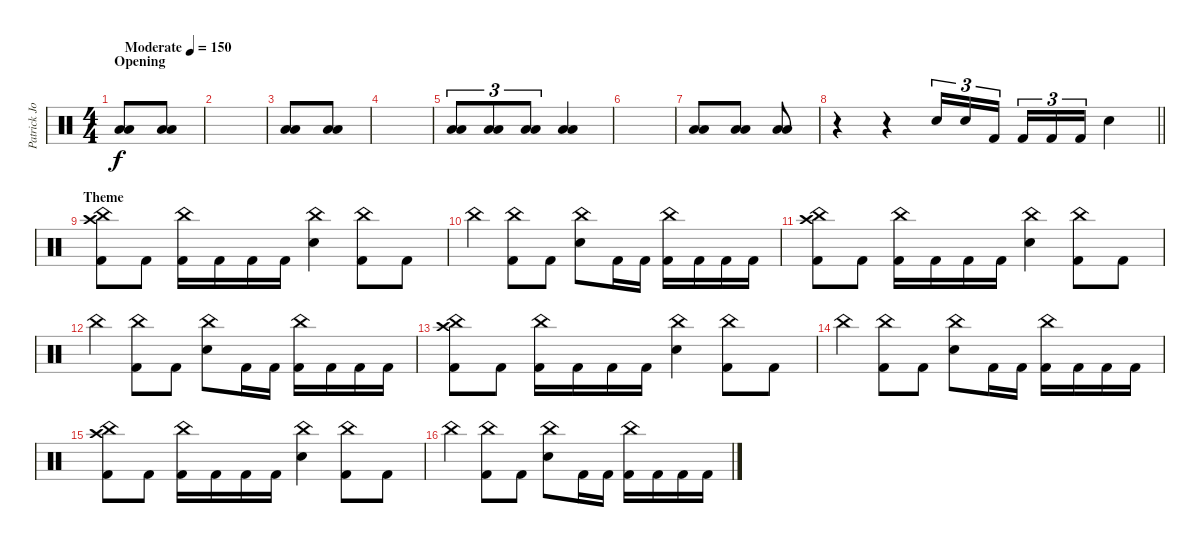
\track ("Patrick Johansson" "Patrick Jo") {instrument percussion}
\staff {score}
\articulation defaults
\ts (4 4)
\section ("" "Opening")
\tempo (150 "Moderate")
\clef neutral
\ks c
("Low Floor Tom (hit)" "Low Floor Tom (hit)").8{dy f} ("Low Floor Tom (hit)" "Low Floor Tom (hit)").8 |
|
("Low Floor Tom (hit)" "Low Floor Tom (hit)").8 ("Low Floor Tom (hit)" "Low Floor Tom (hit)").8 |
|
("Low Floor Tom (hit)" "Low Floor Tom (hit)").8{tu (3 2)} ("Low Floor Tom (hit)" "Low Floor Tom (hit)").8{tu (3 2)} ("Low Floor Tom (hit)" "Low Floor Tom (hit)").8{tu (3 2)} ("Low Floor Tom (hit)" "Low Floor Tom (hit)").4 |
|
("Low Floor Tom (hit)" "Low Floor Tom (hit)").8 ("Low Floor Tom (hit)" "Low Floor Tom (hit)").8 ("Low Floor Tom (hit)" "Low Floor Tom (hit)").8 |
\barLineRight lightlight
r.4 r.4 "Snare (hit) 2".16{tu (3 2)} "Snare (hit) 2".16{tu (3 2)} "Kick (hit) 2".16{tu (3 2) beam splitsecondary} "Kick (hit) 2".16{tu (3 2)} "Kick (hit) 2".16{tu (3 2)} "Kick (hit) 2".16{tu (3 2)} "Snare (hit) 2".4 |
\section ("" "Theme")
("Crash high (hit)" "China (hit)" "Kick (hit) 2").8 "Kick (hit) 2".8 ("China (hit)" "Kick (hit) 2").16 "Kick (hit) 2".16 "Kick (hit) 2".16 "Kick (hit) 2".16 ("China (hit)" "Snare (hit) 2").4 ("China (hit)" "Kick (hit) 2").8 "Kick (hit) 2".8 |
"China (hit)".4 ("China (hit)" "Kick (hit) 2").8 "Kick (hit) 2".8 ("China (hit)" "Snare (hit) 2").8 "Kick (hit) 2".16 "Kick (hit) 2".16 ("China (hit)" "Kick (hit) 2").16 "Kick (hit) 2".16 "Kick (hit) 2".16 "Kick (hit) 2".16 |
("Crash high (hit)" "China (hit)" "Kick (hit) 2").8 "Kick (hit) 2".8 ("China (hit)" "Kick (hit) 2").16 "Kick (hit) 2".16 "Kick (hit) 2".16 "Kick (hit) 2".16 ("China (hit)" "Snare (hit) 2").4 ("China (hit)" "Kick (hit) 2").8 "Kick (hit) 2".8 |
"China (hit)".4 ("China (hit)" "Kick (hit) 2").8 "Kick (hit) 2".8 ("China (hit)" "Snare (hit) 2").8 "Kick (hit) 2".16 "Kick (hit) 2".16 ("China (hit)" "Kick (hit) 2").16 "Kick (hit) 2".16 "Kick (hit) 2".16 "Kick (hit) 2".16 |
("Crash high (hit)" "China (hit)" "Kick (hit) 2").8 "Kick (hit) 2".8 ("China (hit)" "Kick (hit) 2").16 "Kick (hit) 2".16 "Kick (hit) 2".16 "Kick (hit) 2".16 ("China (hit)" "Snare (hit) 2").4 ("China (hit)" "Kick (hit) 2").8 "Kick (hit) 2".8 |
"China (hit)".4 ("China (hit)" "Kick (hit) 2").8 "Kick (hit) 2".8 ("China (hit)" "Snare (hit) 2").8 "Kick (hit) 2".16 "Kick (hit) 2".16 ("China (hit)" "Kick (hit) 2").16 "Kick (hit) 2".16 "Kick (hit) 2".16 "Kick (hit) 2".16 |
("Crash high (hit)" "China (hit)" "Kick (hit) 2").8 "Kick (hit) 2".8 ("China (hit)" "Kick (hit) 2").16 "Kick (hit) 2".16 "Kick (hit) 2".16 "Kick (hit) 2".16 ("China (hit)" "Snare (hit) 2").4 ("China (hit)" "Kick (hit) 2").8 "Kick (hit) 2".8 |
"China (hit)".4 ("China (hit)" "Kick (hit) 2").8 "Kick (hit) 2".8 ("China (hit)" "Snare (hit) 2").8 "Kick (hit) 2".16 "Kick (hit) 2".16 ("China (hit)" "Kick (hit) 2").16 "Kick (hit) 2".16 "Kick (hit) 2".16 "Kick (hit) 2".16
